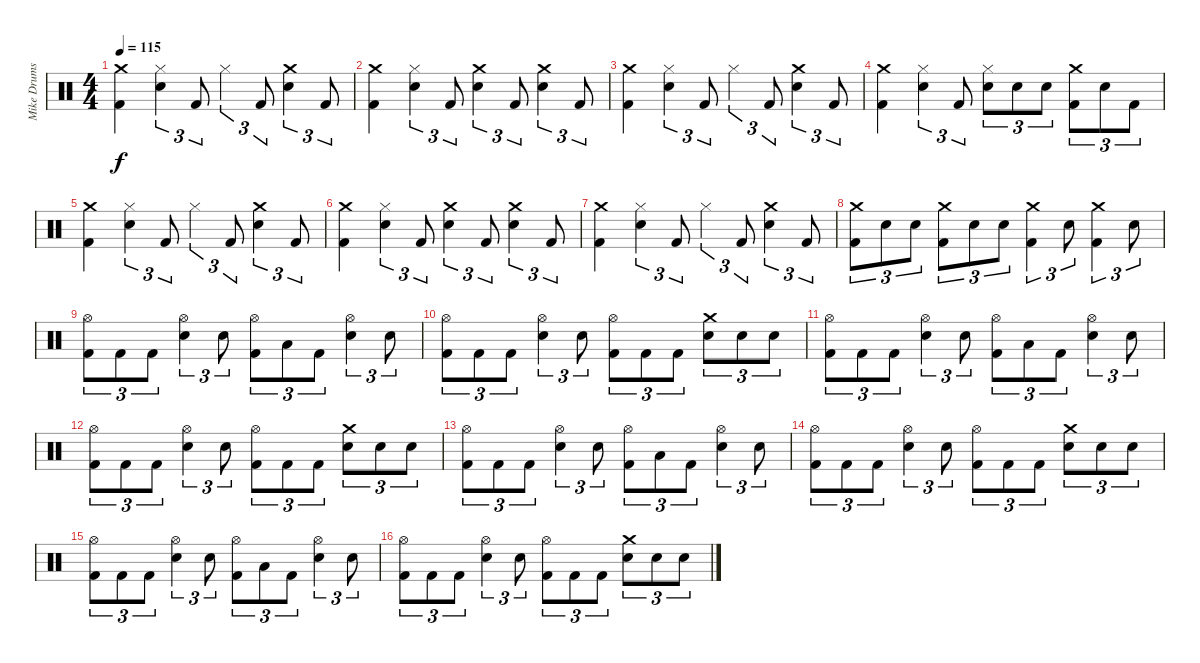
\track ("Mike Drums" "Mike Drums") {instrument percussion}
\staff {score}
\articulation defaults
\ts (4 4)
\tempo 115
\clef neutral
\ks c
("Crash medium (hit)" "Kick (hit) 2").4{dy f} ("Hi-Hat (closed)" "Electric Snare (hit)").4{tu (3 2)} "Kick (hit) 2".8{tu (3 2)} "Hi-Hat (closed)".4{tu (3 2)} "Kick (hit) 2".8{tu (3 2)} ("Crash medium (hit)" "Electric Snare (hit)").4{tu (3 2)} "Kick (hit) 2".8{tu (3 2)} |
("Crash medium (hit)" "Kick (hit) 2").4 ("Hi-Hat (closed)" "Electric Snare (hit)").4{tu (3 2)} "Kick (hit) 2".8{tu (3 2)} ("Crash medium (hit)" "Electric Snare (hit)").4{tu (3 2)} "Kick (hit) 2".8{tu (3 2)} ("Crash medium (hit)" "Electric Snare (hit)").4{tu (3 2)} "Kick (hit) 2".8{tu (3 2)} |
("Crash medium (hit)" "Kick (hit) 2").4 ("Hi-Hat (closed)" "Electric Snare (hit)").4{tu (3 2)} "Kick (hit) 2".8{tu (3 2)} "Hi-Hat (closed)".4{tu (3 2)} "Kick (hit) 2".8{tu (3 2)} ("Crash medium (hit)" "Electric Snare (hit)").4{tu (3 2)} "Kick (hit) 2".8{tu (3 2)} |
("Crash medium (hit)" "Kick (hit) 2").4 ("Hi-Hat (closed)" "Electric Snare (hit)").4{tu (3 2)} "Kick (hit) 2".8{tu (3 2)} ("Hi-Hat (closed)" "Electric Snare (hit)").8{tu (3 2)} "Electric Snare (hit)".8{tu (3 2)} "Electric Snare (hit)".8{tu (3 2)} ("Crash medium (hit)" "Kick (hit) 2").8{tu (3 2)} "Electric Snare (hit)".8{tu (3 2)} "Kick (hit) 2".8{tu (3 2)} |
("Crash medium (hit)" "Kick (hit) 2").4 ("Hi-Hat (closed)" "Electric Snare (hit)").4{tu (3 2)} "Kick (hit) 2".8{tu (3 2)} "Hi-Hat (closed)".4{tu (3 2)} "Kick (hit) 2".8{tu (3 2)} ("Crash medium (hit)" "Electric Snare (hit)").4{tu (3 2)} "Kick (hit) 2".8{tu (3 2)} |
("Crash medium (hit)" "Kick (hit) 2").4 ("Hi-Hat (closed)" "Electric Snare (hit)").4{tu (3 2)} "Kick (hit) 2".8{tu (3 2)} ("Crash medium (hit)" "Electric Snare (hit)").4{tu (3 2)} "Kick (hit) 2".8{tu (3 2)} ("Crash medium (hit)" "Electric Snare (hit)").4{tu (3 2)} "Kick (hit) 2".8{tu (3 2)} |
("Crash medium (hit)" "Kick (hit) 2").4 ("Hi-Hat (closed)" "Electric Snare (hit)").4{tu (3 2)} "Kick (hit) 2".8{tu (3 2)} "Hi-Hat (closed)".4{tu (3 2)} "Kick (hit) 2".8{tu (3 2)} ("Crash medium (hit)" "Electric Snare (hit)").4{tu (3 2)} "Kick (hit) 2".8{tu (3 2)} |
("Crash medium (hit)" "Kick (hit) 2").8{tu (3 2)} "Electric Snare (hit)".8{tu (3 2)} "Electric Snare (hit)".8{tu (3 2)} ("Crash medium (hit)" "Kick (hit) 2").8{tu (3 2)} "Electric Snare (hit)".8{tu (3 2)} "Electric Snare (hit)".8{tu (3 2)} ("Crash medium (hit)" "Kick (hit) 2").4{tu (3 2)} "Electric Snare (hit)".8{tu (3 2)} ("Crash medium (hit)" "Kick (hit) 2").4{tu (3 2)} "Electric Snare (hit)".8{tu (3 2)} |
("Hi-Hat (open)" "Kick (hit) 2").8{tu (3 2)} "Kick (hit) 2".8{tu (3 2)} "Kick (hit) 2".8{tu (3 2)} ("Hi-Hat (open)" "Electric Snare (hit)").4{tu (3 2)} "Electric Snare (hit)".8{tu (3 2)} ("Hi-Hat (open)" "Kick (hit) 2").8{tu (3 2)} "Low Tom (hit)".8{tu (3 2)} "Kick (hit) 2".8{tu (3 2)} ("Hi-Hat (open)" "Electric Snare (hit)").4{tu (3 2)} "Electric Snare (hit)".8{tu (3 2)} |
("Hi-Hat (open)" "Kick (hit) 2").8{tu (3 2)} "Kick (hit) 2".8{tu (3 2)} "Kick (hit) 2".8{tu (3 2)} ("Hi-Hat (open)" "Electric Snare (hit)").4{tu (3 2)} "Electric Snare (hit)".8{tu (3 2)} ("Hi-Hat (open)" "Kick (hit) 2").8{tu (3 2)} "Kick (hit) 2".8{tu (3 2)} "Kick (hit) 2".8{tu (3 2)} ("Crash medium (hit)" "Electric Snare (hit)").8{tu (3 2)} "Electric Snare (hit)".8{tu (3 2)} "Electric Snare (hit)".8{tu (3 2)} |
("Hi-Hat (open)" "Kick (hit) 2").8{tu (3 2)} "Kick (hit) 2".8{tu (3 2)} "Kick (hit) 2".8{tu (3 2)} ("Hi-Hat (open)" "Electric Snare (hit)").4{tu (3 2)} "Electric Snare (hit)".8{tu (3 2)} ("Hi-Hat (open)" "Kick (hit) 2").8{tu (3 2)} "Low Tom (hit)".8{tu (3 2)} "Kick (hit) 2".8{tu (3 2)} ("Hi-Hat (open)" "Electric Snare (hit)").4{tu (3 2)} "Electric Snare (hit)".8{tu (3 2)} |
("Hi-Hat (open)" "Kick (hit) 2").8{tu (3 2)} "Kick (hit) 2".8{tu (3 2)} "Kick (hit) 2".8{tu (3 2)} ("Hi-Hat (open)" "Electric Snare (hit)").4{tu (3 2)} "Electric Snare (hit)".8{tu (3 2)} ("Hi-Hat (open)" "Kick (hit) 2").8{tu (3 2)} "Kick (hit) 2".8{tu (3 2)} "Kick (hit) 2".8{tu (3 2)} ("Crash medium (hit)" "Electric Snare (hit)").8{tu (3 2)} "Electric Snare (hit)".8{tu (3 2)} "Electric Snare (hit)".8{tu (3 2)} |
("Hi-Hat (open)" "Kick (hit) 2").8{tu (3 2)} "Kick (hit) 2".8{tu (3 2)} "Kick (hit) 2".8{tu (3 2)} ("Hi-Hat (open)" "Electric Snare (hit)").4{tu (3 2)} "Electric Snare (hit)".8{tu (3 2)} ("Hi-Hat (open)" "Kick (hit) 2").8{tu (3 2)} "Low Tom (hit)".8{tu (3 2)} "Kick (hit) 2".8{tu (3 2)} ("Hi-Hat (open)" "Electric Snare (hit)").4{tu (3 2)} "Electric Snare (hit)".8{tu (3 2)} |
("Hi-Hat (open)" "Kick (hit) 2").8{tu (3 2)} "Kick (hit) 2".8{tu (3 2)} "Kick (hit) 2".8{tu (3 2)} ("Hi-Hat (open)" "Electric Snare (hit)").4{tu (3 2)} "Electric Snare (hit)".8{tu (3 2)} ("Hi-Hat (open)" "Kick (hit) 2").8{tu (3 2)} "Kick (hit) 2".8{tu (3 2)} "Kick (hit) 2".8{tu (3 2)} ("Crash medium (hit)" "Electric Snare (hit)").8{tu (3 2)} "Electric Snare (hit)".8{tu (3 2)} "Electric Snare (hit)".8{tu (3 2)} |
("Hi-Hat (open)" "Kick (hit) 2").8{tu (3 2)} "Kick (hit) 2".8{tu (3 2)} "Kick (hit) 2".8{tu (3 2)} ("Hi-Hat (open)" "Electric Snare (hit)").4{tu (3 2)} "Electric Snare (hit)".8{tu (3 2)} ("Hi-Hat (open)" "Kick (hit) 2").8{tu (3 2)} "Low Tom (hit)".8{tu (3 2)} "Kick (hit) 2".8{tu (3 2)} ("Hi-Hat (open)" "Electric Snare (hit)").4{tu (3 2)} "Electric Snare (hit)".8{tu (3 2)} |
("Hi-Hat (open)" "Kick (hit) 2").8{tu (3 2)} "Kick (hit) 2".8{tu (3 2)} "Kick (hit) 2".8{tu (3 2)} ("Hi-Hat (open)" "Electric Snare (hit)").4{tu (3 2)} "Electric Snare (hit)".8{tu (3 2)} ("Hi-Hat (open)" "Kick (hit) 2").8{tu (3 2)} "Kick (hit) 2".8{tu (3 2)} "Kick (hit) 2".8{tu (3 2)} ("Crash medium (hit)" "Electric Snare (hit)").8{tu (3 2)} "Electric Snare (hit)".8{tu (3 2)} "Electric Snare (hit)".8{tu (3 2)}
